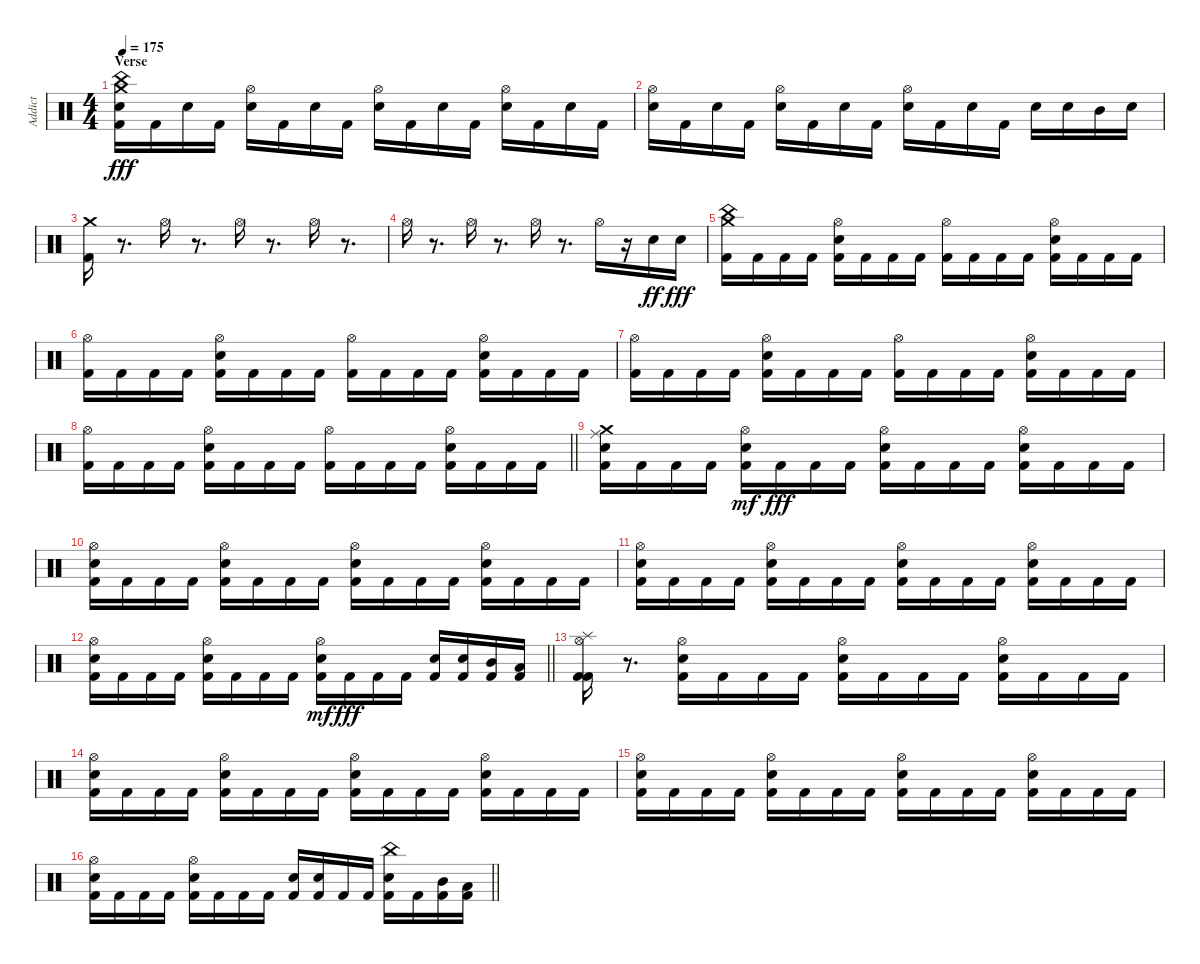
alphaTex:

\track ("Addict" "Addict") {instrument percussion}
\staff {score}
\articulation defaults
\ts (4 4)
\section ("" "Verse")
\tempo 175
\clef neutral
\ks c
("Kick (hit) 2" "Snare (hit) 2" "Crash medium (hit)" "China (hit)").16{dy fff} "Kick (hit) 2".16 "Snare (hit) 2".16 "Kick (hit) 2".16 ("Snare (hit) 2" "Hi-Hat (open)").16 "Kick (hit) 2".16 "Snare (hit) 2".16 "Kick (hit) 2".16 ("Snare (hit) 2" "Hi-Hat (open)").16 "Kick (hit) 2".16 "Snare (hit) 2".16 "Kick (hit) 2".16 ("Snare (hit) 2" "Hi-Hat (open)").16 "Kick (hit) 2".16 "Snare (hit) 2".16 "Kick (hit) 2".16 |
("Snare (hit) 2" "Hi-Hat (open)").16 "Kick (hit) 2".16 "Snare (hit) 2".16 "Kick (hit) 2".16 ("Snare (hit) 2" "Hi-Hat (open)").16 "Kick (hit) 2".16 "Snare (hit) 2".16 "Kick (hit) 2".16 ("Snare (hit) 2" "Hi-Hat (open)").16 "Kick (hit) 2".16 "Snare (hit) 2".16 "Kick (hit) 2".16 "Snare (hit) 2".16 "Snare (hit) 2".16 "Mid Tom (hit)".16 "Snare (hit) 2".16 |
("Kick (hit) 2" "Crash medium (hit)").16 r.8{d} "Hi-Hat (open)".16 r.8{d} "Hi-Hat (open)".16 r.8{d} "Hi-Hat (open)".16 r.8{d} |
"Hi-Hat (open)".16 r.8{d} "Hi-Hat (open)".16 r.8{d} "Hi-Hat (open)".16 r.8{d} "Hi-Hat (open)".16 r.16 "Snare (hit) 2".16{dy ff} "Snare (hit) 2".16{dy fff} |
("Kick (hit) 2" "Crash medium (hit)" "China (hit)").16 "Kick (hit) 2".16 "Kick (hit) 2".16 "Kick (hit) 2".16 ("Kick (hit) 2" "Snare (hit) 2" "Hi-Hat (open)").16 "Kick (hit) 2".16 "Kick (hit) 2".16 "Kick (hit) 2".16 ("Kick (hit) 2" "Hi-Hat (open)").16 "Kick (hit) 2".16 "Kick (hit) 2".16 "Kick (hit) 2".16 ("Kick (hit) 2" "Snare (hit) 2" "Hi-Hat (open)").16 "Kick (hit) 2".16 "Kick (hit) 2".16 "Kick (hit) 2".16 |
("Kick (hit) 2" "Hi-Hat (open)").16 "Kick (hit) 2".16 "Kick (hit) 2".16 "Kick (hit) 2".16 ("Kick (hit) 2" "Snare (hit) 2" "Hi-Hat (open)").16 "Kick (hit) 2".16 "Kick (hit) 2".16 "Kick (hit) 2".16 ("Kick (hit) 2" "Hi-Hat (open)").16 "Kick (hit) 2".16 "Kick (hit) 2".16 "Kick (hit) 2".16 ("Kick (hit) 2" "Snare (hit) 2" "Hi-Hat (open)").16 "Kick (hit) 2".16 "Kick (hit) 2".16 "Kick (hit) 2".16 |
("Kick (hit) 2" "Hi-Hat (open)").16 "Kick (hit) 2".16 "Kick (hit) 2".16 "Kick (hit) 2".16 ("Kick (hit) 2" "Snare (hit) 2" "Hi-Hat (open)").16 "Kick (hit) 2".16 "Kick (hit) 2".16 "Kick (hit) 2".16 ("Kick (hit) 2" "Hi-Hat (open)").16 "Kick (hit) 2".16 "Kick (hit) 2".16 "Kick (hit) 2".16 ("Kick (hit) 2" "Snare (hit) 2" "Hi-Hat (open)").16 "Kick (hit) 2".16 "Kick (hit) 2".16 "Kick (hit) 2".16 |
\barLineRight lightlight
("Kick (hit) 2" "Hi-Hat (open)").16 "Kick (hit) 2".16 "Kick (hit) 2".16 "Kick (hit) 2".16 ("Kick (hit) 2" "Snare (hit) 2" "Hi-Hat (open)").16 "Kick (hit) 2".16 "Kick (hit) 2".16 "Kick (hit) 2".16 ("Kick (hit) 2" "Hi-Hat (open)").16 "Kick (hit) 2".16 "Kick (hit) 2".16 "Kick (hit) 2".16 ("Kick (hit) 2" "Snare (hit) 2" "Hi-Hat (open)").16 "Kick (hit) 2".16 "Kick (hit) 2".16 "Kick (hit) 2".16 |
("Kick (hit) 2" "Snare (hit) 2" "Crash medium (hit)" "Ride (middle)").16 "Kick (hit) 2".16 "Kick (hit) 2".16 "Kick (hit) 2".16 ("Kick (hit) 2" "Snare (hit) 2" "Hi-Hat (open)").16{dy mf} "Kick (hit) 2".16{dy fff} "Kick (hit) 2".16 "Kick (hit) 2".16 ("Kick (hit) 2" "Snare (hit) 2" "Hi-Hat (open)").16 "Kick (hit) 2".16 "Kick (hit) 2".16 "Kick (hit) 2".16 ("Kick (hit) 2" "Snare (hit) 2" "Hi-Hat (open)").16 "Kick (hit) 2".16 "Kick (hit) 2".16 "Kick (hit) 2".16 |
("Kick (hit) 2" "Snare (hit) 2" "Hi-Hat (open)").16 "Kick (hit) 2".16 "Kick (hit) 2".16 "Kick (hit) 2".16 ("Kick (hit) 2" "Snare (hit) 2" "Hi-Hat (open)").16 "Kick (hit) 2".16 "Kick (hit) 2".16 "Kick (hit) 2".16 ("Kick (hit) 2" "Snare (hit) 2" "Hi-Hat (open)").16 "Kick (hit) 2".16 "Kick (hit) 2".16 "Kick (hit) 2".16 ("Kick (hit) 2" "Snare (hit) 2" "Hi-Hat (open)").16 "Kick (hit) 2".16 "Kick (hit) 2".16 "Kick (hit) 2".16 |
("Kick (hit) 2" "Snare (hit) 2" "Hi-Hat (open)").16 "Kick (hit) 2".16 "Kick (hit) 2".16 "Kick (hit) 2".16 ("Kick (hit) 2" "Snare (hit) 2" "Hi-Hat (open)").16 "Kick (hit) 2".16 "Kick (hit) 2".16 "Kick (hit) 2".16 ("Kick (hit) 2" "Snare (hit) 2" "Hi-Hat (open)").16 "Kick (hit) 2".16 "Kick (hit) 2".16 "Kick (hit) 2".16 ("Kick (hit) 2" "Snare (hit) 2" "Hi-Hat (open)").16 "Kick (hit) 2".16 "Kick (hit) 2".16 "Kick (hit) 2".16 |
\barLineRight lightlight
("Kick (hit) 2" "Snare (hit) 2" "Hi-Hat (open)").16 "Kick (hit) 2".16 "Kick (hit) 2".16 "Kick (hit) 2".16 ("Kick (hit) 2" "Snare (hit) 2" "Hi-Hat (open)").16 "Kick (hit) 2".16 "Kick (hit) 2".16 "Kick (hit) 2".16 ("Kick (hit) 2" "Snare (hit) 2" "Hi-Hat (open)").16{dy mf} "Kick (hit) 2".16{dy fff} "Kick (hit) 2".16 "Kick (hit) 2".16 ("Kick (hit) 2" "Snare (hit) 2").16 ("Kick (hit) 2" "Snare (hit) 2").16 ("Kick (hit) 2" "Mid Tom (hit)").16 ("Kick (hit) 2" "Low Tom (hit)").16 |
("Kick (hit) 2" "Hi-Hat (open)" "Kick (hit) 2" "Splash (hit)").16 r.8{d} ("Kick (hit) 2" "Snare (hit) 2" "Hi-Hat (open)").16 "Kick (hit) 2".16 "Kick (hit) 2".16 "Kick (hit) 2".16 ("Kick (hit) 2" "Snare (hit) 2" "Hi-Hat (open)").16 "Kick (hit) 2".16 "Kick (hit) 2".16 "Kick (hit) 2".16 ("Kick (hit) 2" "Snare (hit) 2" "Hi-Hat (open)").16 "Kick (hit) 2".16 "Kick (hit) 2".16 "Kick (hit) 2".16 |
("Kick (hit) 2" "Snare (hit) 2" "Hi-Hat (open)").16 "Kick (hit) 2".16 "Kick (hit) 2".16 "Kick (hit) 2".16 ("Kick (hit) 2" "Snare (hit) 2" "Hi-Hat (open)").16 "Kick (hit) 2".16 "Kick (hit) 2".16 "Kick (hit) 2".16 ("Kick (hit) 2" "Snare (hit) 2" "Hi-Hat (open)").16 "Kick (hit) 2".16 "Kick (hit) 2".16 "Kick (hit) 2".16 ("Kick (hit) 2" "Snare (hit) 2" "Hi-Hat (open)").16 "Kick (hit) 2".16 "Kick (hit) 2".16 "Kick (hit) 2".16 |
("Kick (hit) 2" "Snare (hit) 2" "Hi-Hat (open)").16 "Kick (hit) 2".16 "Kick (hit) 2".16 "Kick (hit) 2".16 ("Kick (hit) 2" "Snare (hit) 2" "Hi-Hat (open)").16 "Kick (hit) 2".16 "Kick (hit) 2".16 "Kick (hit) 2".16 ("Kick (hit) 2" "Snare (hit) 2" "Hi-Hat (open)").16 "Kick (hit) 2".16 "Kick (hit) 2".16 "Kick (hit) 2".16 ("Kick (hit) 2" "Snare (hit) 2" "Hi-Hat (open)").16 "Kick (hit) 2".16 "Kick (hit) 2".16 "Kick (hit) 2".16 |
\barLineRight lightlight
("Kick (hit) 2" "Snare (hit) 2" "Hi-Hat (open)").16 "Kick (hit) 2".16 "Kick (hit) 2".16 "Kick (hit) 2".16 ("Kick (hit) 2" "Snare (hit) 2" "Hi-Hat (open)").16 "Kick (hit) 2".16 "Kick (hit) 2".16 "Kick (hit) 2".16 ("Kick (hit) 2" "Snare (hit) 2").16 ("Kick (hit) 2" "Snare (hit) 2").16 "Kick (hit) 2".16 "Kick (hit) 2".16 ("Kick (hit) 2" "Snare (hit) 2" "China (hit)").16 "Kick (hit) 2".16 ("Kick (hit) 2" "Mid Tom (hit)").16 ("Kick (hit) 2" "Low Tom (hit)").16
